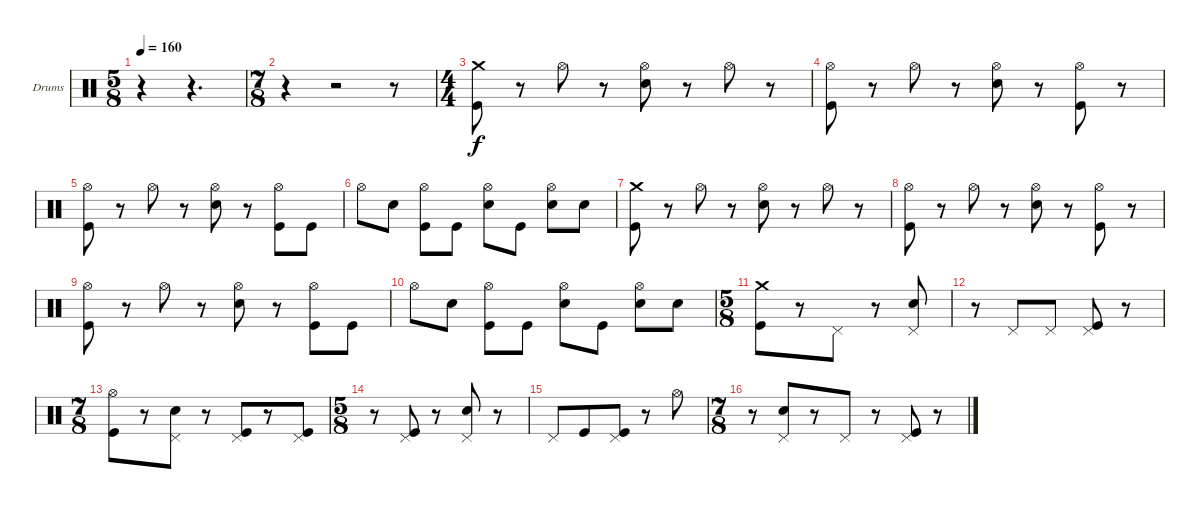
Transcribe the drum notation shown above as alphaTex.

\bracketExtendMode groupsimilarinstruments
\firstSystemTrackNameOrientation horizontal
\otherSystemsTrackNameOrientation horizontal
\track ("Drumkit" "Drums") {instrument percussion}
\staff {score}
\articulation defaults
\ts (5 8)
\tempo 160
\clef neutral
\ks c
r.4{dy f} r.4{d} |
\ts (7 8)
r.4 r.2 r.8 |
\ts (4 4)
("Crash medium (hit)" "Kick (hit)").8 r.8 "Hi-Hat (open)".8 r.8 ("Hi-Hat (open)" "Snare (hit) 2").8 r.8 "Hi-Hat (open)".8 r.8 |
("Hi-Hat (open)" "Kick (hit)").8 r.8 "Hi-Hat (open)".8 r.8 ("Hi-Hat (open)" "Snare (hit) 2").8 r.8 ("Hi-Hat (open)" "Kick (hit)").8 r.8 |
("Hi-Hat (open)" "Kick (hit)").8 r.8 "Hi-Hat (open)".8 r.8 ("Hi-Hat (open)" "Snare (hit) 2").8 r.8 ("Hi-Hat (open)" "Kick (hit)").8 "Kick (hit)".8 |
"Hi-Hat (open)".8 "Snare (hit) 2".8 ("Hi-Hat (open)" "Kick (hit)").8 "Kick (hit)".8 ("Hi-Hat (open)" "Snare (hit) 2").8 "Kick (hit)".8 ("Hi-Hat (open)" "Snare (hit) 2").8 "Snare (hit) 2".8 |
("Crash medium (hit)" "Kick (hit)").8 r.8 "Hi-Hat (open)".8 r.8 ("Hi-Hat (open)" "Snare (hit) 2").8 r.8 "Hi-Hat (open)".8 r.8 |
("Hi-Hat (open)" "Kick (hit)").8 r.8 "Hi-Hat (open)".8 r.8 ("Hi-Hat (open)" "Snare (hit) 2").8 r.8 ("Hi-Hat (open)" "Kick (hit)").8 r.8 |
("Hi-Hat (open)" "Kick (hit)").8 r.8 "Hi-Hat (open)".8 r.8 ("Hi-Hat (open)" "Snare (hit) 2").8 r.8 ("Hi-Hat (open)" "Kick (hit)").8 "Kick (hit)".8 |
"Hi-Hat (open)".8 "Snare (hit) 2".8 ("Hi-Hat (open)" "Kick (hit)").8 "Kick (hit)".8 ("Hi-Hat (open)" "Snare (hit) 2").8 "Kick (hit)".8 ("Hi-Hat (open)" "Snare (hit) 2").8 "Snare (hit) 2".8 |
\ts (5 8)
("Crash medium (hit)" "Kick (hit)").8 r.8 "Pedal Hi-Hat (hit)".8 r.8 ("Pedal Hi-Hat (hit)" "Snare (hit) 2").8 |
r.8 "Pedal Hi-Hat (hit)".8 "Pedal Hi-Hat (hit)".8 ("Pedal Hi-Hat (hit)" "Kick (hit)").8 r.8 |
\ts (7 8)
("Hi-Hat (open)" "Kick (hit)").8 r.8 ("Pedal Hi-Hat (hit)" "Snare (hit) 2").8 r.8 ("Pedal Hi-Hat (hit)" "Kick (hit)").8 r.8 ("Pedal Hi-Hat (hit)" "Kick (hit)").8 |
\ts (5 8)
r.8 ("Pedal Hi-Hat (hit)" "Kick (hit)").8 r.8 ("Pedal Hi-Hat (hit)" "Snare (hit) 2").8 r.8 |
"Pedal Hi-Hat (hit)".8 "Kick (hit)".8 ("Pedal Hi-Hat (hit)" "Kick (hit)").8 r.8 "Hi-Hat (open)".8 |
\ts (7 8)
r.8 ("Pedal Hi-Hat (hit)" "Snare (hit) 2").8 r.8 "Pedal Hi-Hat (hit)".8 r.8 ("Pedal Hi-Hat (hit)" "Kick (hit)").8 r.8
